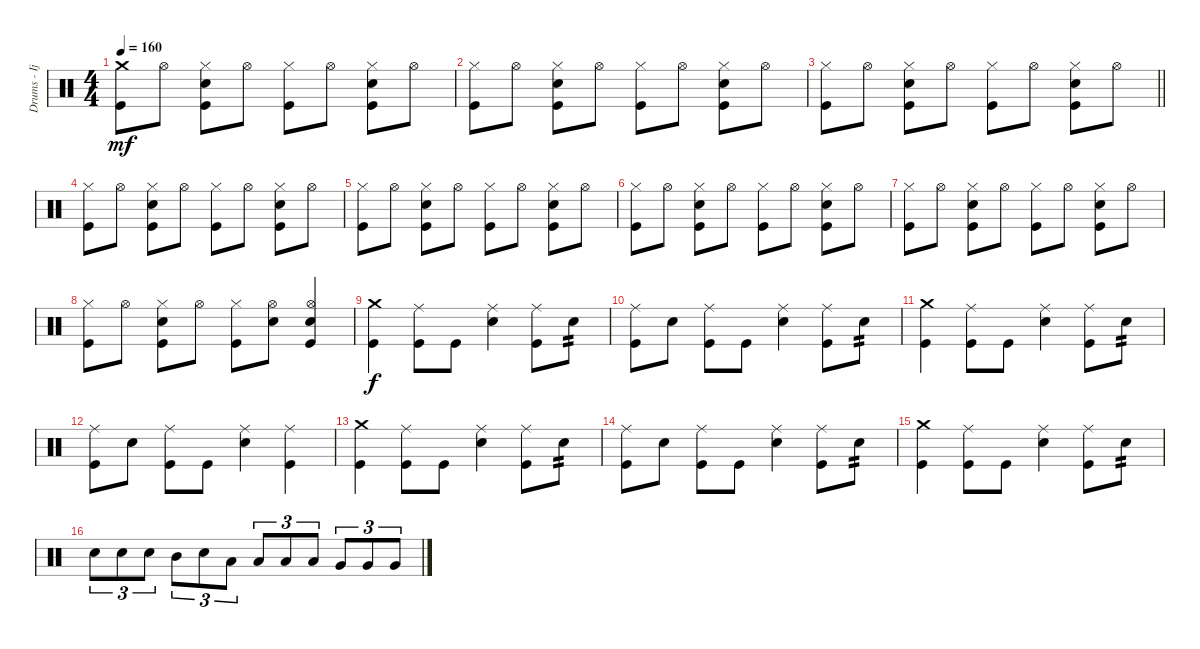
\track ("Drums - Ijichi" "Drums - Ij") {instrument percussion}
\staff {score}
\articulation defaults
\ts (4 4)
\tempo 160
\clef neutral
\ks c
("Crash medium (hit)" "Kick (hit)").8{dy mf} "Hi-Hat (open)".8 ("Hi-Hat (closed)" "Electric Snare (hit)" "Kick (hit)").8 "Hi-Hat (open)".8 ("Hi-Hat (closed)" "Kick (hit)").8 "Hi-Hat (open)".8 ("Hi-Hat (closed)" "Electric Snare (hit)" "Kick (hit)").8 "Hi-Hat (open)".8 |
("Hi-Hat (closed)" "Kick (hit)").8 "Hi-Hat (open)".8 ("Hi-Hat (closed)" "Electric Snare (hit)" "Kick (hit)").8 "Hi-Hat (open)".8 ("Hi-Hat (closed)" "Kick (hit)").8 "Hi-Hat (open)".8 ("Hi-Hat (closed)" "Electric Snare (hit)" "Kick (hit)").8 "Hi-Hat (open)".8 |
\barLineRight lightlight
("Hi-Hat (closed)" "Kick (hit)").8 "Hi-Hat (open)".8 ("Hi-Hat (closed)" "Electric Snare (hit)" "Kick (hit)").8 "Hi-Hat (open)".8 ("Hi-Hat (closed)" "Kick (hit)").8 "Hi-Hat (open)".8 ("Hi-Hat (closed)" "Electric Snare (hit)" "Kick (hit)").8 "Hi-Hat (open)".8 |
("Hi-Hat (closed)" "Kick (hit)").8 "Hi-Hat (open)".8 ("Hi-Hat (closed)" "Electric Snare (hit)" "Kick (hit)").8 "Hi-Hat (open)".8 ("Hi-Hat (closed)" "Kick (hit)").8 "Hi-Hat (open)".8 ("Hi-Hat (closed)" "Electric Snare (hit)" "Kick (hit)").8 "Hi-Hat (open)".8 |
("Hi-Hat (closed)" "Kick (hit)").8 "Hi-Hat (open)".8 ("Hi-Hat (closed)" "Electric Snare (hit)" "Kick (hit)").8 "Hi-Hat (open)".8 ("Hi-Hat (closed)" "Kick (hit)").8 "Hi-Hat (open)".8 ("Hi-Hat (closed)" "Electric Snare (hit)" "Kick (hit)").8 "Hi-Hat (open)".8 |
("Hi-Hat (closed)" "Kick (hit)").8 "Hi-Hat (open)".8 ("Hi-Hat (closed)" "Electric Snare (hit)" "Kick (hit)").8 "Hi-Hat (open)".8 ("Hi-Hat (closed)" "Kick (hit)").8 "Hi-Hat (open)".8 ("Hi-Hat (closed)" "Electric Snare (hit)" "Kick (hit)").8 "Hi-Hat (open)".8 |
("Hi-Hat (closed)" "Kick (hit)").8 "Hi-Hat (open)".8 ("Hi-Hat (closed)" "Electric Snare (hit)" "Kick (hit)").8 "Hi-Hat (open)".8 ("Hi-Hat (closed)" "Kick (hit)").8 "Hi-Hat (open)".8 ("Hi-Hat (closed)" "Electric Snare (hit)" "Kick (hit)").8 "Hi-Hat (open)".8 |
("Hi-Hat (closed)" "Kick (hit)").8 "Hi-Hat (open)".8 ("Hi-Hat (closed)" "Electric Snare (hit)" "Kick (hit)").8 "Hi-Hat (open)".8 ("Hi-Hat (closed)" "Kick (hit)").8 ("Hi-Hat (open)" "Electric Snare (hit)").8 ("Hi-Hat (open)" "Electric Snare (hit)" "Kick (hit)").4 |
("Crash medium (hit)" "Kick (hit)").4{dy f} ("Ride (middle)" "Kick (hit)").8 "Kick (hit)".8 ("Ride (middle)" "Electric Snare (hit)").4 ("Ride (middle)" "Kick (hit)").8 "Electric Snare (hit)".8{tp 2} |
("Ride (middle)" "Kick (hit)").8 "Electric Snare (hit)".8 ("Ride (middle)" "Kick (hit)").8 "Kick (hit)".8 ("Ride (middle)" "Electric Snare (hit)").4 ("Ride (middle)" "Kick (hit)").8 "Electric Snare (hit)".8{tp 2} |
("Crash medium (hit)" "Kick (hit)").4 ("Ride (middle)" "Kick (hit)").8 "Kick (hit)".8 ("Ride (middle)" "Electric Snare (hit)").4 ("Ride (middle)" "Kick (hit)").8 "Electric Snare (hit)".8{tp 2} |
("Ride (middle)" "Kick (hit)").8 "Electric Snare (hit)".8 ("Ride (middle)" "Kick (hit)").8 "Kick (hit)".8 ("Ride (middle)" "Electric Snare (hit)").4 ("Ride (middle)" "Kick (hit)").4 |
("Crash medium (hit)" "Kick (hit)").4 ("Ride (middle)" "Kick (hit)").8 "Kick (hit)".8 ("Ride (middle)" "Electric Snare (hit)").4 ("Ride (middle)" "Kick (hit)").8 "Electric Snare (hit)".8{tp 2} |
("Ride (middle)" "Kick (hit)").8 "Electric Snare (hit)".8 ("Ride (middle)" "Kick (hit)").8 "Kick (hit)".8 ("Ride (middle)" "Electric Snare (hit)").4 ("Ride (middle)" "Kick (hit)").8 "Electric Snare (hit)".8{tp 2} |
("Crash medium (hit)" "Kick (hit)").4 ("Ride (middle)" "Kick (hit)").8 "Kick (hit)".8 ("Ride (middle)" "Electric Snare (hit)").4 ("Ride (middle)" "Kick (hit)").8 "Electric Snare (hit)".8{tp 2} |
"Electric Snare (hit)".8{tu (3 2)} "Electric Snare (hit)".8{tu (3 2)} "Electric Snare (hit)".8{tu (3 2)} "Mid Tom (hit)".8{tu (3 2)} "Electric Snare (hit)".8{tu (3 2)} "Low Tom (hit)".8{tu (3 2)} "Low Tom (hit)".8{tu (3 2)} "Low Tom (hit)".8{tu (3 2)} "Low Tom (hit)".8{tu (3 2)} "Very Low Tom (hit)".8{tu (3 2)} "Very Low Tom (hit)".8{tu (3 2)} "Very Low Tom (hit)".8{tu (3 2)}
